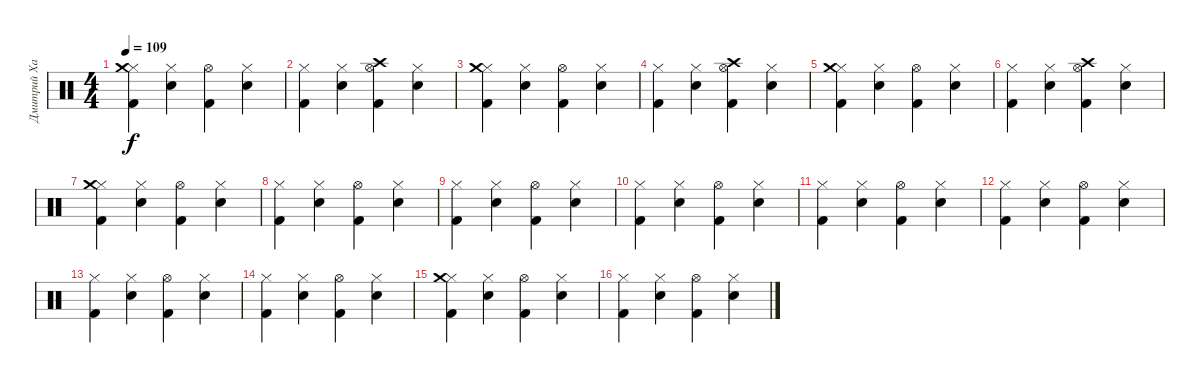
\track ("Дмитрий Хакимов" "Дмитрий Ха") {instrument percussion}
\staff {score}
\articulation defaults
\ts (4 4)
\tempo 109
\clef neutral
\ks c
("Hi-Hat (closed)" "Kick (hit) 2" "Crash medium (hit)").4{dy f} ("Hi-Hat (closed)" "Snare (hit) 2").4 ("Hi-Hat (open)" "Kick (hit) 2").4 ("Hi-Hat (closed)" "Snare (hit) 2").4 |
("Hi-Hat (closed)" "Kick (hit) 2").4 ("Hi-Hat (closed)" "Snare (hit) 2").4 ("Hi-Hat (open)" "Crash high (hit)" "Kick (hit) 2").4 ("Hi-Hat (closed)" "Snare (hit) 2").4 |
("Hi-Hat (closed)" "Kick (hit) 2" "Crash medium (hit)").4 ("Hi-Hat (closed)" "Snare (hit) 2").4 ("Hi-Hat (open)" "Kick (hit) 2").4 ("Hi-Hat (closed)" "Snare (hit) 2").4 |
("Hi-Hat (closed)" "Kick (hit) 2").4 ("Hi-Hat (closed)" "Snare (hit) 2").4 ("Hi-Hat (open)" "Crash high (hit)" "Kick (hit) 2").4 ("Hi-Hat (closed)" "Snare (hit) 2").4 |
("Hi-Hat (closed)" "Kick (hit) 2" "Crash medium (hit)").4 ("Hi-Hat (closed)" "Snare (hit) 2").4 ("Hi-Hat (open)" "Kick (hit) 2").4 ("Hi-Hat (closed)" "Snare (hit) 2").4 |
("Hi-Hat (closed)" "Kick (hit) 2").4 ("Hi-Hat (closed)" "Snare (hit) 2").4 ("Hi-Hat (open)" "Crash high (hit)" "Kick (hit) 2").4 ("Hi-Hat (closed)" "Snare (hit) 2").4 |
("Hi-Hat (closed)" "Kick (hit) 2" "Crash medium (hit)").4 ("Hi-Hat (closed)" "Snare (hit) 2").4 ("Hi-Hat (open)" "Kick (hit) 2").4 ("Hi-Hat (closed)" "Snare (hit) 2").4 |
("Hi-Hat (closed)" "Kick (hit) 2").4 ("Hi-Hat (closed)" "Snare (hit) 2").4 ("Hi-Hat (open)" "Kick (hit) 2").4 ("Hi-Hat (closed)" "Snare (hit) 2").4 |
("Hi-Hat (closed)" "Kick (hit) 2").4 ("Hi-Hat (closed)" "Snare (hit) 2").4 ("Hi-Hat (open)" "Kick (hit) 2").4 ("Hi-Hat (closed)" "Snare (hit) 2").4 |
("Hi-Hat (closed)" "Kick (hit) 2").4 ("Hi-Hat (closed)" "Snare (hit) 2").4 ("Hi-Hat (open)" "Kick (hit) 2").4 ("Hi-Hat (closed)" "Snare (hit) 2").4 |
("Hi-Hat (closed)" "Kick (hit) 2").4 ("Hi-Hat (closed)" "Snare (hit) 2").4 ("Hi-Hat (open)" "Kick (hit) 2").4 ("Hi-Hat (closed)" "Snare (hit) 2").4 |
("Hi-Hat (closed)" "Kick (hit) 2").4 ("Hi-Hat (closed)" "Snare (hit) 2").4 ("Hi-Hat (open)" "Kick (hit) 2").4 ("Hi-Hat (closed)" "Snare (hit) 2").4 |
("Hi-Hat (closed)" "Kick (hit) 2").4 ("Hi-Hat (closed)" "Snare (hit) 2").4 ("Hi-Hat (open)" "Kick (hit) 2").4 ("Hi-Hat (closed)" "Snare (hit) 2").4 |
("Hi-Hat (closed)" "Kick (hit) 2").4 ("Hi-Hat (closed)" "Snare (hit) 2").4 ("Hi-Hat (open)" "Kick (hit) 2").4 ("Hi-Hat (closed)" "Snare (hit) 2").4 |
("Hi-Hat (closed)" "Crash medium (hit)" "Kick (hit) 2").4 ("Hi-Hat (closed)" "Snare (hit) 2").4 ("Hi-Hat (open)" "Kick (hit) 2").4 ("Hi-Hat (closed)" "Snare (hit) 2").4 |
("Hi-Hat (closed)" "Kick (hit) 2").4 ("Hi-Hat (closed)" "Snare (hit) 2").4 ("Hi-Hat (open)" "Kick (hit) 2").4 ("Hi-Hat (closed)" "Snare (hit) 2").4
